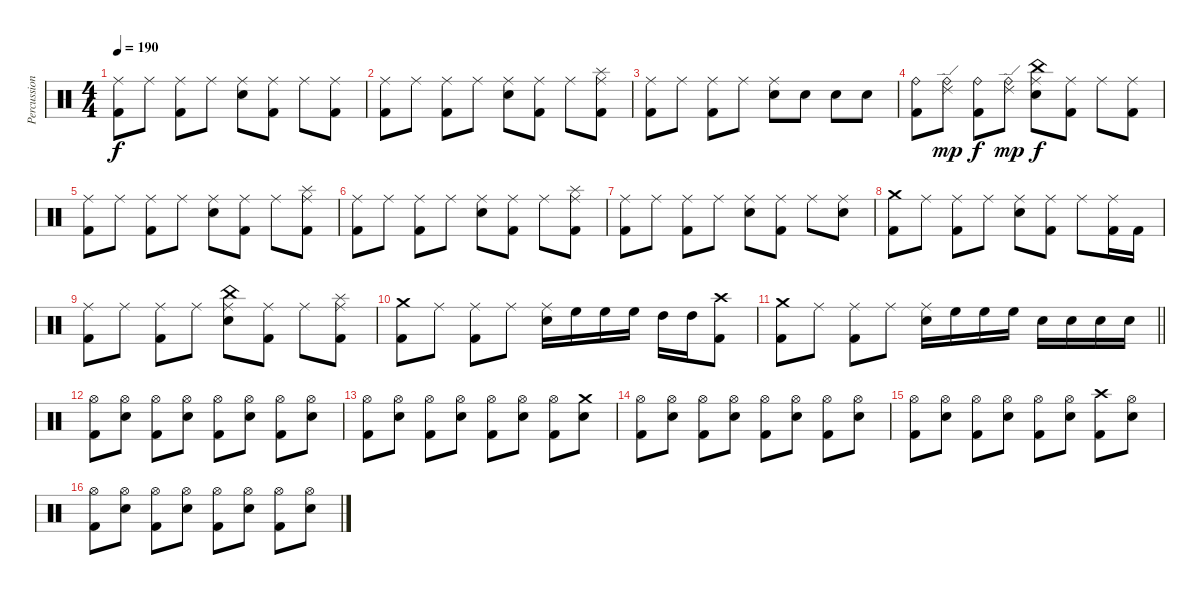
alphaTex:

\track ("Percussions" "Percussion") {instrument percussion}
\staff {score}
\articulation defaults
\ts (4 4)
\tempo 190
\clef neutral
\ks c
("Ride (middle)" "Kick (hit) 2").8{dy f} "Ride (middle)".8 ("Ride (middle)" "Kick (hit) 2").8 "Ride (middle)".8 ("Ride (middle)" "Electric Snare (hit)").8 ("Ride (middle)" "Kick (hit) 2").8 "Ride (middle)".8 ("Ride (middle)" "Kick (hit) 2").8 |
("Ride (middle)" "Kick (hit) 2").8 "Ride (middle)".8 ("Ride (middle)" "Kick (hit) 2").8 "Ride (middle)".8 ("Ride (middle)" "Electric Snare (hit)").8 ("Ride (middle)" "Kick (hit) 2").8 "Ride (middle)".8 ("Ride (middle)" "Splash (hit)" "Kick (hit) 2").8 |
("Ride (middle)" "Kick (hit) 2").8 "Ride (middle)".8 ("Ride (middle)" "Kick (hit) 2").8 "Ride (middle)".8 ("Ride (middle)" "Electric Snare (hit)").8 "Electric Snare (hit)".8 "Electric Snare (hit)".8 "Electric Snare (hit)".8 |
("Ride (bell)" "Kick (hit) 2").8 ("Ride (edge) 2" "Ride (bell)").8{dy mp} ("Ride (bell)" "Kick (hit) 2").8{dy f} ("Ride (edge) 2" "Ride (bell)").8{dy mp} ("Ride (middle)" "China (hit)" "Electric Snare (hit)").8{dy f} ("Ride (middle)" "Kick (hit) 2").8 "Ride (middle)".8 ("Ride (middle)" "Kick (hit) 2").8 |
("Ride (middle)" "Kick (hit) 2").8 "Ride (middle)".8 ("Ride (middle)" "Kick (hit) 2").8 "Ride (middle)".8 ("Ride (middle)" "Electric Snare (hit)").8 ("Ride (middle)" "Kick (hit) 2").8 "Ride (middle)".8 ("Ride (middle)" "Splash (hit)" "Kick (hit) 2").8 |
("Ride (middle)" "Kick (hit) 2").8 "Ride (middle)".8 ("Ride (middle)" "Kick (hit) 2").8 "Ride (middle)".8 ("Ride (middle)" "Electric Snare (hit)").8 ("Ride (middle)" "Kick (hit) 2").8 "Ride (middle)".8 ("Ride (middle)" "Splash (hit)" "Kick (hit) 2").8 |
("Ride (middle)" "Kick (hit) 2").8 "Ride (middle)".8 ("Ride (middle)" "Kick (hit) 2").8 "Ride (middle)".8 ("Ride (middle)" "Electric Snare (hit)").8 ("Ride (middle)" "Kick (hit) 2").8 "Ride (middle)".8 ("Ride (middle)" "Electric Snare (hit)").8 |
("Crash medium (hit)" "Kick (hit) 2").8 "Ride (middle)".8 ("Ride (middle)" "Kick (hit) 2").8 "Ride (middle)".8 ("Ride (middle)" "Electric Snare (hit)").8 ("Ride (middle)" "Kick (hit) 2").8 "Ride (middle)".8 ("Ride (middle)" "Kick (hit) 2").16 "Kick (hit) 2".16 |
("Ride (middle)" "Kick (hit) 2").8 "Ride (middle)".8 ("Ride (middle)" "Kick (hit) 2").8 "Ride (middle)".8 ("Ride (middle)" "China (hit)" "Electric Snare (hit)").8 ("Ride (middle)" "Kick (hit) 2").8 "Ride (middle)".8 ("Ride (middle)" "Splash (hit)" "Kick (hit) 2").8 |
("Crash medium (hit)" "Kick (hit) 2").8 "Ride (middle)".8 ("Ride (middle)" "Kick (hit) 2").8 "Ride (middle)".8 ("Ride (middle)" "Electric Snare (hit)").16 "High Floor Tom (hit)".16 "High Floor Tom (hit)".16 "High Floor Tom (hit)".16 "High Tom (hit)".16 "High Tom (hit)".16 ("Crash high (hit)" "Kick (hit) 2").8 |
\barLineRight lightlight
("Crash medium (hit)" "Kick (hit) 2").8 "Ride (middle)".8 ("Ride (middle)" "Kick (hit) 2").8 "Ride (middle)".8 ("Ride (middle)" "Electric Snare (hit)").16 "High Floor Tom (hit)".16 "High Floor Tom (hit)".16 "High Floor Tom (hit)".16 "Electric Snare (hit)".16 "Electric Snare (hit)".16 "Electric Snare (hit)".16 "Electric Snare (hit)".16 |
\section ("" "")
("Hi-Hat (open)" "Kick (hit) 2").8 ("Hi-Hat (open)" "Electric Snare (hit)").8 ("Hi-Hat (open)" "Kick (hit) 2").8 ("Hi-Hat (open)" "Electric Snare (hit)").8 ("Hi-Hat (open)" "Kick (hit) 2").8 ("Hi-Hat (open)" "Electric Snare (hit)").8 ("Hi-Hat (open)" "Kick (hit) 2").8 ("Hi-Hat (open)" "Electric Snare (hit)").8 |
("Hi-Hat (open)" "Kick (hit) 2").8 ("Hi-Hat (open)" "Electric Snare (hit)").8 ("Hi-Hat (open)" "Kick (hit) 2").8 ("Hi-Hat (open)" "Electric Snare (hit)").8 ("Hi-Hat (open)" "Kick (hit) 2").8 ("Hi-Hat (open)" "Electric Snare (hit)").8 ("Hi-Hat (open)" "Kick (hit) 2").8 ("Crash medium (hit)" "Electric Snare (hit)").8 |
("Hi-Hat (open)" "Kick (hit) 2").8 ("Hi-Hat (open)" "Electric Snare (hit)").8 ("Hi-Hat (open)" "Kick (hit) 2").8 ("Hi-Hat (open)" "Electric Snare (hit)").8 ("Hi-Hat (open)" "Kick (hit) 2").8 ("Hi-Hat (open)" "Electric Snare (hit)").8 ("Hi-Hat (open)" "Kick (hit) 2").8 ("Hi-Hat (open)" "Electric Snare (hit)").8 |
("Hi-Hat (open)" "Kick (hit) 2").8 ("Hi-Hat (open)" "Electric Snare (hit)").8 ("Hi-Hat (open)" "Kick (hit) 2").8 ("Hi-Hat (open)" "Electric Snare (hit)").8 ("Hi-Hat (open)" "Kick (hit) 2").8 ("Hi-Hat (open)" "Electric Snare (hit)").8 ("Crash high (hit)" "Kick (hit) 2").8 ("Hi-Hat (open)" "Electric Snare (hit)").8 |
("Hi-Hat (open)" "Kick (hit) 2").8 ("Hi-Hat (open)" "Electric Snare (hit)").8 ("Hi-Hat (open)" "Kick (hit) 2").8 ("Hi-Hat (open)" "Electric Snare (hit)").8 ("Hi-Hat (open)" "Kick (hit) 2").8 ("Hi-Hat (open)" "Electric Snare (hit)").8 ("Hi-Hat (open)" "Kick (hit) 2").8 ("Hi-Hat (open)" "Electric Snare (hit)").8
